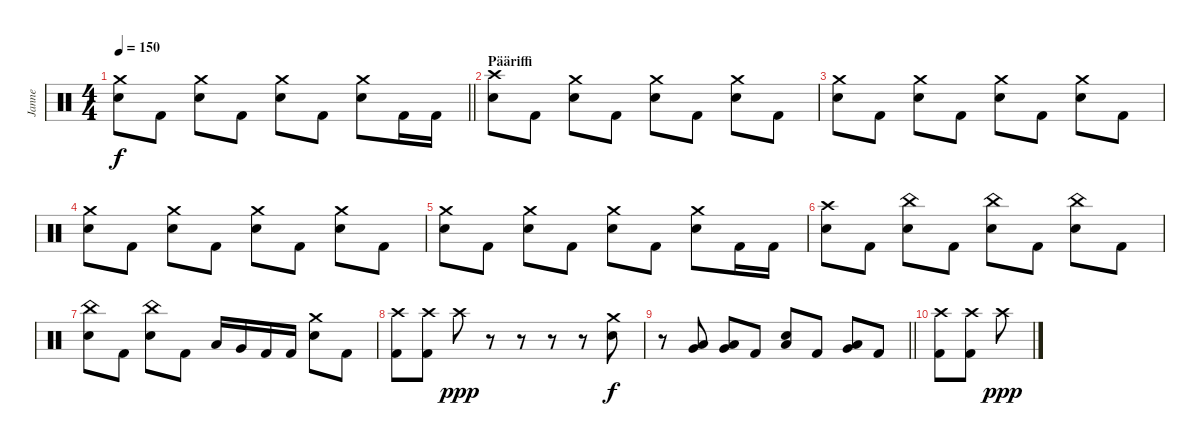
\track ("Janne" "Janne") {instrument percussion}
\staff {score}
\articulation defaults
\ts (4 4)
\tempo 150
\clef neutral
\barLineRight lightlight
\ks c
("Crash medium (hit)" "Electric Snare (hit)").8{dy f} "Kick (hit) 2".8 ("Crash medium (hit)" "Electric Snare (hit)").8 "Kick (hit) 2".8 ("Crash medium (hit)" "Electric Snare (hit)").8 "Kick (hit) 2".8 ("Crash medium (hit)" "Electric Snare (hit)").8 "Kick (hit) 2".16 "Kick (hit) 2".16 |
\section ("" "Pääriffi")
("Crash high (hit)" "Electric Snare (hit)").8 "Kick (hit) 2".8 ("Crash medium (hit)" "Electric Snare (hit)").8 "Kick (hit) 2".8 ("Crash medium (hit)" "Electric Snare (hit)").8 "Kick (hit) 2".8 ("Crash medium (hit)" "Electric Snare (hit)").8 "Kick (hit) 2".8 |
("Crash medium (hit)" "Electric Snare (hit)").8 "Kick (hit) 2".8 ("Crash medium (hit)" "Electric Snare (hit)").8 "Kick (hit) 2".8 ("Crash medium (hit)" "Electric Snare (hit)").8 "Kick (hit) 2".8 ("Crash medium (hit)" "Electric Snare (hit)").8 "Kick (hit) 2".8 |
("Crash medium (hit)" "Electric Snare (hit)").8 "Kick (hit) 2".8 ("Crash medium (hit)" "Electric Snare (hit)").8 "Kick (hit) 2".8 ("Crash medium (hit)" "Electric Snare (hit)").8 "Kick (hit) 2".8 ("Crash medium (hit)" "Electric Snare (hit)").8 "Kick (hit) 2".8 |
("Crash medium (hit)" "Electric Snare (hit)").8 "Kick (hit) 2".8 ("Crash medium (hit)" "Electric Snare (hit)").8 "Kick (hit) 2".8 ("Crash medium (hit)" "Electric Snare (hit)").8 "Kick (hit) 2".8 ("Crash medium (hit)" "Electric Snare (hit)").8 "Kick (hit) 2".16 "Kick (hit) 2".16 |
("Crash high (hit)" "Electric Snare (hit)").8 "Kick (hit) 2".8 ("China (hit)" "Electric Snare (hit)").8 "Kick (hit) 2".8 ("China (hit)" "Electric Snare (hit)").8 "Kick (hit) 2".8 ("China (hit)" "Electric Snare (hit)").8 "Kick (hit) 2".8 |
("China (hit)" "Electric Snare (hit)").8 "Kick (hit) 2".8 ("China (hit)" "Electric Snare (hit)").8 "Kick (hit) 2".8 "Low Tom (hit)".16 "Very Low Tom (hit)".16 "Kick (hit) 2".16 "Kick (hit) 2".16 ("Crash medium (hit)" "Electric Snare (hit)").8 "Kick (hit) 2".8 |
("Crash high (hit)" "Kick (hit) 2").8 ("Crash high (hit)" "Kick (hit) 2").8 "Crash high (hit)".8{dy ppp} r.8 r.8 r.8 r.8 ("Crash medium (hit)" "Electric Snare (hit)").8{dy f} |
\barLineRight lightlight
r.8 ("Low Tom (hit)" "Very Low Tom (hit)").8 ("Very Low Tom (hit)" "Low Floor Tom (hit)").8 "Kick (hit) 2".8 ("Electric Snare (hit)" "Low Floor Tom (hit)").8 "Kick (hit) 2".8 ("Very Low Tom (hit)" "Low Floor Tom (hit)").8 "Kick (hit) 2".8 |
("Crash high (hit)" "Kick (hit) 2").8 ("Crash high (hit)" "Kick (hit) 2").8 "Crash high (hit)".8{dy ppp}
